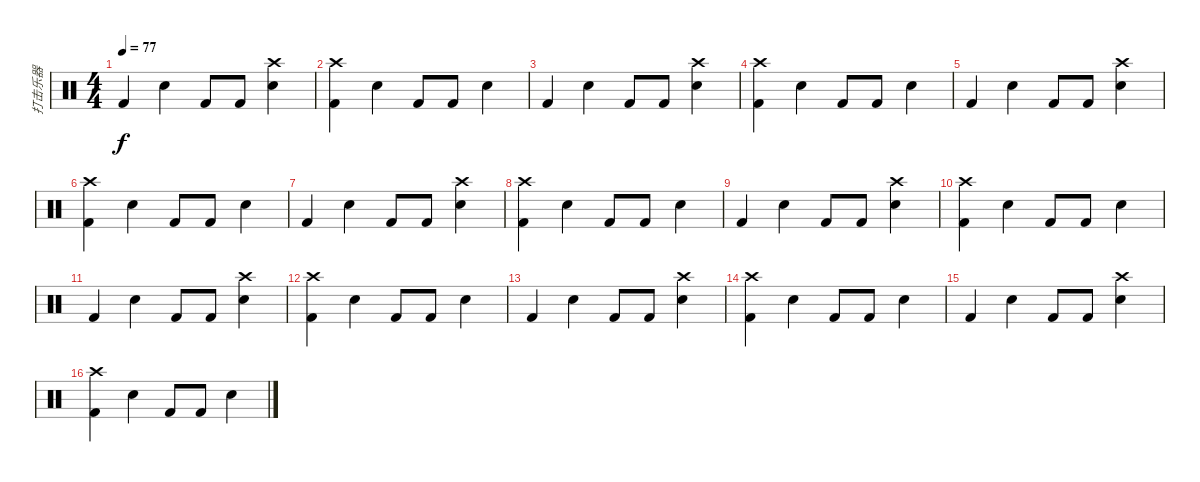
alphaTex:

\track ("打击乐器" "打击乐器") {instrument percussion}
\staff {score}
\articulation defaults
\ts (4 4)
\tempo 77
\clef neutral
\ks c "Kick (hit) 2".4{dy f} "Snare (hit) 2".4 "Kick (hit) 2".8 "Kick (hit) 2".8
("Snare (hit) 2" "Crash high (hit)").4 |
("Kick (hit) 2" "Crash high (hit)").4 "Snare (hit) 2".4 "Kick (hit) 2".8 "Kick (hit) 2".8 "Snare (hit) 2".4 |
"Kick (hit) 2".4 "Snare (hit) 2".4 "Kick (hit) 2".8 "Kick (hit) 2".8 ("Snare (hit) 2" "Crash high (hit)").4 |
("Kick (hit) 2" "Crash high (hit)").4 "Snare (hit) 2".4 "Kick (hit) 2".8 "Kick (hit) 2".8 "Snare (hit) 2".4 |
"Kick (hit) 2".4 "Snare (hit) 2".4 "Kick (hit) 2".8 "Kick (hit) 2".8 ("Snare (hit) 2" "Crash high (hit)").4 |
("Kick (hit) 2" "Crash high (hit)").4 "Snare (hit) 2".4 "Kick (hit) 2".8 "Kick (hit) 2".8 "Snare (hit) 2".4 |
"Kick (hit) 2".4 "Snare (hit) 2".4 "Kick (hit) 2".8 "Kick (hit) 2".8 ("Snare (hit) 2" "Crash high (hit)").4 |
("Kick (hit) 2" "Crash high (hit)").4 "Snare (hit) 2".4 "Kick (hit) 2".8 "Kick (hit) 2".8 "Snare (hit) 2".4 |
"Kick (hit) 2".4 "Snare (hit) 2".4 "Kick (hit) 2".8 "Kick (hit) 2".8 ("Snare (hit) 2" "Crash high (hit)").4 |
("Kick (hit) 2" "Crash high (hit)").4 "Snare (hit) 2".4 "Kick (hit) 2".8 "Kick (hit) 2".8 "Snare (hit) 2".4 |
"Kick (hit) 2".4 "Snare (hit) 2".4 "Kick (hit) 2".8 "Kick (hit) 2".8 ("Snare (hit) 2" "Crash high (hit)").4 |
("Kick (hit) 2" "Crash high (hit)").4 "Snare (hit) 2".4 "Kick (hit) 2".8 "Kick (hit) 2".8 "Snare (hit) 2".4 |
"Kick (hit) 2".4 "Snare (hit) 2".4 "Kick (hit) 2".8 "Kick (hit) 2".8 ("Snare (hit) 2" "Crash high (hit)").4 |
("Kick (hit) 2" "Crash high (hit)").4 "Snare (hit) 2".4 "Kick (hit) 2".8 "Kick (hit) 2".8 "Snare (hit) 2".4 |
"Kick (hit) 2".4 "Snare (hit) 2".4 "Kick (hit) 2".8 "Kick (hit) 2".8 ("Snare (hit) 2" "Crash high (hit)").4 |
("Kick (hit) 2" "Crash high (hit)").4 "Snare (hit) 2".4 "Kick (hit) 2".8 "Kick (hit) 2".8 "Snare (hit) 2".4
